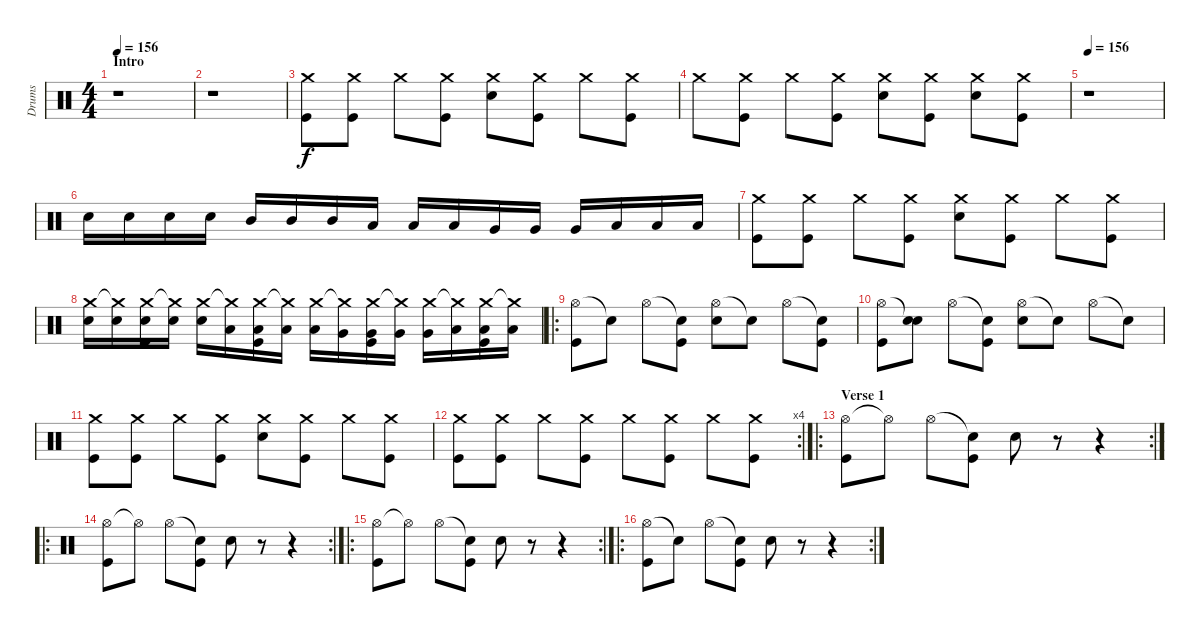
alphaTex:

\track ("Drums" "Drums") {instrument percussion}
\staff {score}
\articulation defaults
\ts (4 4)
\section ("" "Intro")
\tempo 156
\clef neutral
\ks c
r.1{dy f} |
r.1 |
("Crash medium (hit)" "Kick (hit)").8 ("Crash medium (hit)" "Kick (hit)").8 "Crash medium (hit)".8 ("Crash medium (hit)" "Kick (hit)").8 ("Crash medium (hit)" "Electric Snare (hit)").8 ("Crash medium (hit)" "Kick (hit)").8 "Crash medium (hit)".8 ("Crash medium (hit)" "Kick (hit)").8 |
"Crash medium (hit)".8 ("Crash medium (hit)" "Kick (hit)").8 "Crash medium (hit)".8 ("Crash medium (hit)" "Kick (hit)").8 ("Crash medium (hit)" "Electric Snare (hit)").8 ("Crash medium (hit)" "Kick (hit)").8 ("Crash medium (hit)" "Electric Snare (hit)").8 ("Crash medium (hit)" "Kick (hit)").8 |
\tempo 156
r.1 |
"Electric Snare (hit)".16 "Electric Snare (hit)".16 "Electric Snare (hit)".16 "Electric Snare (hit)".16 "Mid Tom (hit)".16 "Mid Tom (hit)".16 "Mid Tom (hit)".16 "Low Tom (hit)".16 "Low Tom (hit)".16 "Low Tom (hit)".16 "Very Low Tom (hit)".16 "Very Low Tom (hit)".16 "Very Low Tom (hit)".16 "Low Floor Tom (hit)".16 "Low Floor Tom (hit)".16 "Low Floor Tom (hit)".16 |
("Crash medium (hit)" "Kick (hit)").8 ("Crash medium (hit)" "Kick (hit)").8 "Crash medium (hit)".8 ("Crash medium (hit)" "Kick (hit)").8 ("Crash medium (hit)" "Electric Snare (hit)").8 ("Crash medium (hit)" "Kick (hit)").8 "Crash medium (hit)".8 ("Crash medium (hit)" "Kick (hit)").8 |
("Crash medium (hit)" "Electric Snare (hit)").16 ("Crash medium (hit)"{t} "Electric Snare (hit)").16 ("Crash medium (hit)" "Electric Snare (hit)" "Kick (hit)").16 ("Crash medium (hit)"{t} "Electric Snare (hit)").16 ("Crash medium (hit)" "Electric Snare (hit)").16 ("Crash medium (hit)"{t} "Low Tom (hit)").16 ("Crash medium (hit)" "Low Tom (hit)" "Kick (hit)").16 ("Crash medium (hit)"{t} "Low Tom (hit)").16 ("Crash medium (hit)" "Low Tom (hit)").16 ("Crash medium (hit)"{t} "Very Low Tom (hit)").16 ("Crash medium (hit)" "Very Low Tom (hit)" "Kick (hit)").16 ("Crash medium (hit)"{t} "Very Low Tom (hit)").16 ("Crash medium (hit)" "Very Low Tom (hit)").16 ("Crash medium (hit)"{t} "Low Floor Tom (hit)").16 ("Crash medium (hit)" "Low Floor Tom (hit)" "Kick (hit)").16 ("Crash medium (hit)"{t} "Low Floor Tom (hit)").16 |
\ro
("Hi-Hat (open)" "Kick (hit)").8 "Snare (hit)"{t}.8 "Hi-Hat (open)".8 ("Snare (hit)"{t} "Kick (hit)").8 ("Hi-Hat (open)" "Electric Snare (hit)").8 "Snare (hit)"{t}.8 "Hi-Hat (open)".8 ("Snare (hit)"{t} "Kick (hit)").8 |
("Hi-Hat (open)" "Kick (hit)").8 ("Snare (hit)"{t} "Electric Snare (hit)").8 "Hi-Hat (open)".8 ("Snare (hit)"{t} "Kick (hit)").8 ("Hi-Hat (open)" "Electric Snare (hit)").8 "Snare (hit)"{t}.8 "Hi-Hat (open)".8 "Snare (hit)"{t}.8 |
("Crash medium (hit)" "Kick (hit)").8 ("Crash medium (hit)" "Kick (hit)").8 "Crash medium (hit)".8 ("Crash medium (hit)" "Kick (hit)").8 ("Crash medium (hit)" "Electric Snare (hit)").8 ("Crash medium (hit)" "Kick (hit)").8 "Crash medium (hit)".8 ("Crash medium (hit)" "Kick (hit)").8 |
\rc 4
("Crash medium (hit)" "Kick (hit)").8 ("Crash medium (hit)" "Kick (hit)").8 "Crash medium (hit)".8 ("Crash medium (hit)" "Kick (hit)").8 "Crash medium (hit)".8 ("Crash medium (hit)" "Kick (hit)").8 "Crash medium (hit)".8 ("Crash medium (hit)" "Kick (hit)").8 |
\ro
\rc 2
\section ("" "Verse 1")
("Hi-Hat (open)" "Kick (hit)").8 "Hi-Hat (open)"{t}.8 "Hi-Hat (open)".8 ("Snare (hit)"{t} "Kick (hit)").8 "Electric Snare (hit)".8 r.8 r.4 |
\ro
\rc 2
("Hi-Hat (open)" "Kick (hit)").8 "Hi-Hat (open)"{t}.8 "Hi-Hat (open)".8 ("Snare (hit)"{t} "Kick (hit)").8 "Electric Snare (hit)".8 r.8 r.4 |
\ro
\rc 2
("Hi-Hat (open)" "Kick (hit)").8 "Hi-Hat (open)"{t}.8 "Hi-Hat (open)".8 ("Snare (hit)"{t} "Kick (hit)").8 "Electric Snare (hit)".8 r.8 r.4 |
\ro
\rc 2
("Hi-Hat (open)" "Kick (hit)").8 "Snare (hit)"{t}.8 "Hi-Hat (open)".8 ("Snare (hit)"{t} "Kick (hit)").8 "Electric Snare (hit)".8 r.8 r.4
